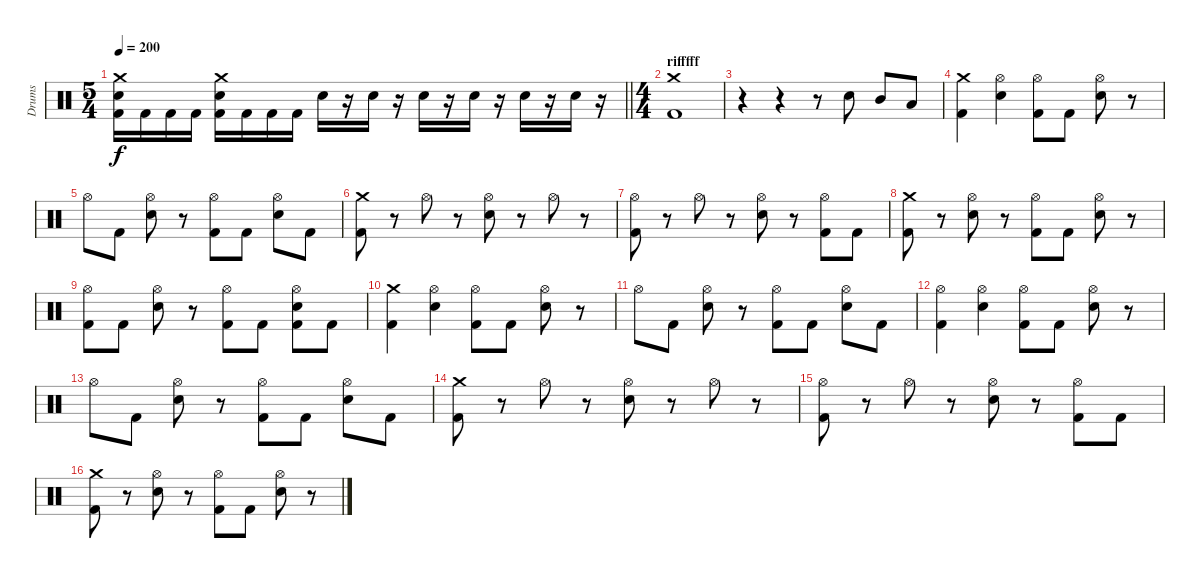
\track ("Drums" "Drums") {instrument percussion}
\staff {score}
\articulation defaults
\ts (5 4)
\tempo 200
\clef neutral
\barLineRight lightlight
\ks c
("Crash medium (hit)" "Snare (hit) 2" "Kick (hit) 2").16{dy f} "Kick (hit) 2".16 "Kick (hit) 2".16 "Kick (hit) 2".16 ("Crash medium (hit)" "Snare (hit) 2" "Kick (hit) 2").16 "Kick (hit) 2".16 "Kick (hit) 2".16 "Kick (hit) 2".16 "Snare (hit) 2".16 r.16 "Snare (hit) 2".16 r.16 "Snare (hit) 2".16 r.16 "Snare (hit) 2".16 r.16 "Snare (hit) 2".16 r.16 "Snare (hit) 2".16 r.16 |
\ts (4 4)
\section ("" "rifffff")
("Crash medium (hit)" "Kick (hit) 2").1 |
r.4 r.4 r.8 "Snare (hit) 2".8 "Mid Tom (hit)".8 "Low Tom (hit)".8 |
("Crash medium (hit)" "Kick (hit) 2").4 ("Hi-Hat (open)" "Snare (hit) 2").4 ("Hi-Hat (open)" "Kick (hit) 2").8 "Kick (hit) 2".8 ("Hi-Hat (open)" "Snare (hit) 2").8 r.8 |
"Hi-Hat (open)".8 "Kick (hit) 2".8 ("Hi-Hat (open)" "Snare (hit) 2").8 r.8 ("Hi-Hat (open)" "Kick (hit) 2").8 "Kick (hit) 2".8 ("Hi-Hat (open)" "Snare (hit) 2").8 "Kick (hit) 2".8 |
("Crash medium (hit)" "Kick (hit) 2").8 r.8 "Hi-Hat (open)".8 r.8 ("Hi-Hat (open)" "Snare (hit) 2").8 r.8 "Hi-Hat (open)".8 r.8 |
("Hi-Hat (open)" "Kick (hit) 2").8 r.8 "Hi-Hat (open)".8 r.8 ("Hi-Hat (open)" "Snare (hit) 2").8 r.8 ("Hi-Hat (open)" "Kick (hit) 2").8 "Kick (hit) 2".8 |
("Crash medium (hit)" "Kick (hit) 2").8 r.8 ("Hi-Hat (open)" "Snare (hit) 2").8 r.8 ("Hi-Hat (open)" "Kick (hit) 2").8 "Kick (hit) 2".8 ("Hi-Hat (open)" "Snare (hit) 2").8 r.8 |
("Hi-Hat (open)" "Kick (hit) 2").8 "Kick (hit) 2".8 ("Hi-Hat (open)" "Snare (hit) 2").8 r.8 ("Hi-Hat (open)" "Kick (hit) 2").8 "Kick (hit) 2".8 ("Hi-Hat (open)" "Snare (hit) 2" "Kick (hit) 2").8 "Kick (hit) 2".8 |
("Crash medium (hit)" "Kick (hit) 2").4 ("Hi-Hat (open)" "Snare (hit) 2").4 ("Hi-Hat (open)" "Kick (hit) 2").8 "Kick (hit) 2".8 ("Hi-Hat (open)" "Snare (hit) 2").8 r.8 |
"Hi-Hat (open)".8 "Kick (hit) 2".8 ("Hi-Hat (open)" "Snare (hit) 2").8 r.8 ("Hi-Hat (open)" "Kick (hit) 2").8 "Kick (hit) 2".8 ("Hi-Hat (open)" "Snare (hit) 2").8 "Kick (hit) 2".8 |
("Hi-Hat (open)" "Kick (hit) 2").4 ("Hi-Hat (open)" "Snare (hit) 2").4 ("Hi-Hat (open)" "Kick (hit) 2").8 "Kick (hit) 2".8 ("Hi-Hat (open)" "Snare (hit) 2").8 r.8 |
"Hi-Hat (open)".8 "Kick (hit) 2".8 ("Hi-Hat (open)" "Snare (hit) 2").8 r.8 ("Hi-Hat (open)" "Kick (hit) 2").8 "Kick (hit) 2".8 ("Hi-Hat (open)" "Snare (hit) 2").8 "Kick (hit) 2".8 |
("Crash medium (hit)" "Kick (hit) 2").8 r.8 "Hi-Hat (open)".8 r.8 ("Hi-Hat (open)" "Snare (hit) 2").8 r.8 "Hi-Hat (open)".8 r.8 |
("Hi-Hat (open)" "Kick (hit) 2").8 r.8 "Hi-Hat (open)".8 r.8 ("Hi-Hat (open)" "Snare (hit) 2").8 r.8 ("Hi-Hat (open)" "Kick (hit) 2").8 "Kick (hit) 2".8 |
("Crash medium (hit)" "Kick (hit) 2").8 r.8 ("Hi-Hat (open)" "Snare (hit) 2").8 r.8 ("Hi-Hat (open)" "Kick (hit) 2").8 "Kick (hit) 2".8 ("Hi-Hat (open)" "Snare (hit) 2").8 r.8
